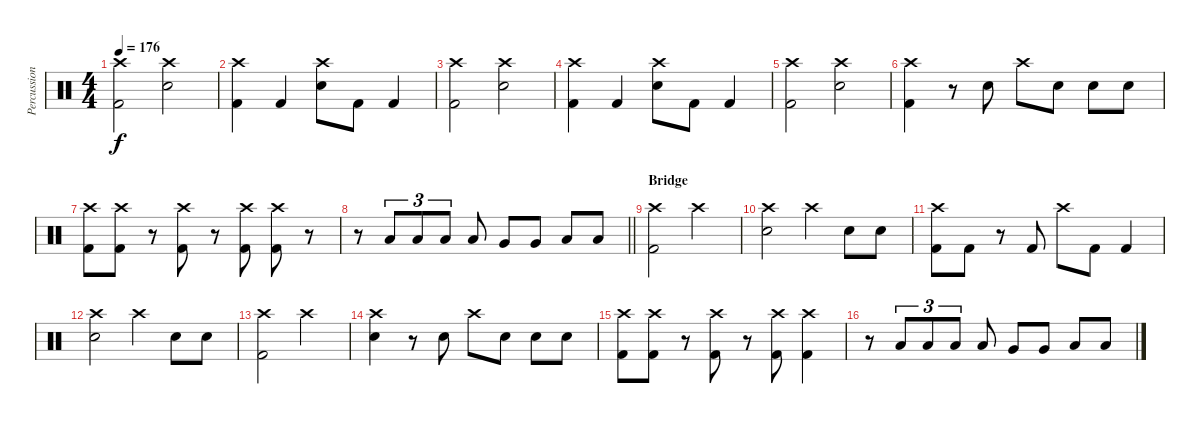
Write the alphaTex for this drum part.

\track ("Percussion" "Percussion") {instrument percussion}
\staff {score}
\articulation defaults
\ts (4 4)
\tempo 176
\clef neutral
\ks c
("Crash high (hit)" "Kick (hit) 2").2{dy f} ("Crash high (hit)" "Snare (hit) 2").2 |
("Crash high (hit)" "Kick (hit) 2").4 "Kick (hit) 2".4 ("Crash high (hit)" "Snare (hit) 2").8 "Kick (hit) 2".8 "Kick (hit) 2".4 |
("Crash high (hit)" "Kick (hit) 2").2 ("Crash high (hit)" "Snare (hit) 2").2 |
("Crash high (hit)" "Kick (hit) 2").4 "Kick (hit) 2".4 ("Crash high (hit)" "Snare (hit) 2").8 "Kick (hit) 2".8 "Kick (hit) 2".4 |
("Crash high (hit)" "Kick (hit) 2").2 ("Crash high (hit)" "Snare (hit) 2").2 |
("Crash high (hit)" "Kick (hit) 2").4 r.8 "Snare (hit) 2".8 "Crash high (hit)".8 "Snare (hit) 2".8 "Snare (hit) 2".8 "Snare (hit) 2".8 |
("Crash high (hit)" "Kick (hit) 2").8 ("Crash high (hit)" "Kick (hit) 2").8 r.8 ("Crash high (hit)" "Kick (hit) 2").8 r.8 ("Crash high (hit)" "Kick (hit) 2").8 ("Crash high (hit)" "Kick (hit) 2").8 r.8 |
\barLineRight lightlight
r.8 "Low Tom (hit)".8{tu (3 2)} "Low Tom (hit)".8{tu (3 2)} "Low Tom (hit)".8{tu (3 2)} "Low Tom (hit)".8 "Very Low Tom (hit)".8 "Very Low Tom (hit)".8 "Low Floor Tom (hit)".8 "Low Floor Tom (hit)".8 |
\section ("" "Bridge")
("Crash high (hit)" "Kick (hit) 2").2 "Crash high (hit)".2 |
("Crash high (hit)" "Snare (hit) 2").2 "Crash high (hit)".4 "Snare (hit) 2".8 "Snare (hit) 2".8 |
("Crash high (hit)" "Kick (hit) 2").8 "Kick (hit) 2".8 r.8 "Kick (hit) 2".8 "Crash high (hit)".8 "Kick (hit) 2".8 "Kick (hit) 2".4 |
("Crash high (hit)" "Snare (hit) 2").2 "Crash high (hit)".4 "Snare (hit) 2".8 "Snare (hit) 2".8 |
("Crash high (hit)" "Kick (hit) 2").2 "Crash high (hit)".2 |
("Crash high (hit)" "Snare (hit) 2").4 r.8 "Snare (hit) 2".8 "Crash high (hit)".8 "Snare (hit) 2".8 "Snare (hit) 2".8 "Snare (hit) 2".8 |
("Crash high (hit)" "Kick (hit) 2").8 ("Crash high (hit)" "Kick (hit) 2").8 r.8 ("Crash high (hit)" "Kick (hit) 2").8 r.8 ("Crash high (hit)" "Kick (hit) 2").8 ("Crash high (hit)" "Kick (hit) 2").4 |
r.8 "Low Tom (hit)".8{tu (3 2)} "Low Tom (hit)".8{tu (3 2)} "Low Tom (hit)".8{tu (3 2)} "Low Tom (hit)".8 "Very Low Tom (hit)".8 "Very Low Tom (hit)".8 "Low Floor Tom (hit)".8 "Low Floor Tom (hit)".8
